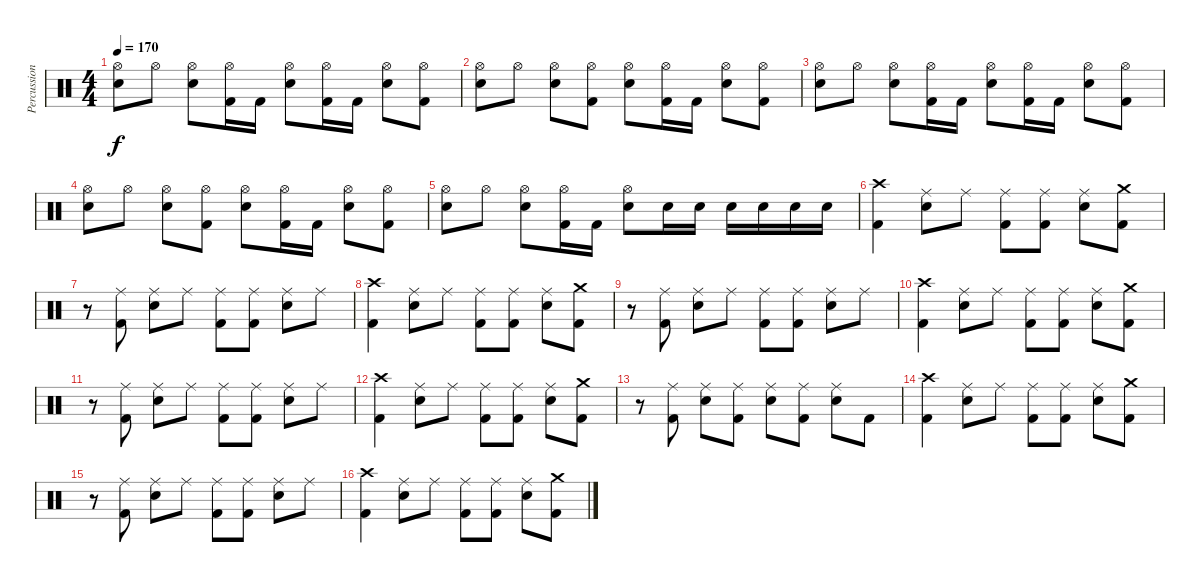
\track ("Percussion" "Percussion") {instrument percussion}
\staff {score}
\articulation defaults
\ts (4 4)
\tempo 170
\clef neutral
\ks c
("Electric Snare (hit)" "Hi-Hat (open)").8{dy f} "Hi-Hat (open)".8 ("Electric Snare (hit)" "Hi-Hat (open)").8 ("Kick (hit) 2" "Hi-Hat (open)").16 "Kick (hit) 2".16 ("Electric Snare (hit)" "Hi-Hat (open)").8 ("Kick (hit) 2" "Hi-Hat (open)").16 "Kick (hit) 2".16 ("Electric Snare (hit)" "Hi-Hat (open)").8 ("Kick (hit) 2" "Hi-Hat (open)").8 |
("Electric Snare (hit)" "Hi-Hat (open)").8 "Hi-Hat (open)".8 ("Electric Snare (hit)" "Hi-Hat (open)").8 ("Kick (hit) 2" "Hi-Hat (open)").8 ("Electric Snare (hit)" "Hi-Hat (open)").8 ("Kick (hit) 2" "Hi-Hat (open)").16 "Kick (hit) 2".16 ("Electric Snare (hit)" "Hi-Hat (open)").8 ("Kick (hit) 2" "Hi-Hat (open)").8 |
("Electric Snare (hit)" "Hi-Hat (open)").8 "Hi-Hat (open)".8 ("Electric Snare (hit)" "Hi-Hat (open)").8 ("Kick (hit) 2" "Hi-Hat (open)").16 "Kick (hit) 2".16 ("Electric Snare (hit)" "Hi-Hat (open)").8 ("Kick (hit) 2" "Hi-Hat (open)").16 "Kick (hit) 2".16 ("Electric Snare (hit)" "Hi-Hat (open)").8 ("Kick (hit) 2" "Hi-Hat (open)").8 |
("Electric Snare (hit)" "Hi-Hat (open)").8 "Hi-Hat (open)".8 ("Electric Snare (hit)" "Hi-Hat (open)").8 ("Kick (hit) 2" "Hi-Hat (open)").8 ("Electric Snare (hit)" "Hi-Hat (open)").8 ("Kick (hit) 2" "Hi-Hat (open)").16 "Kick (hit) 2".16 ("Electric Snare (hit)" "Hi-Hat (open)").8 ("Kick (hit) 2" "Hi-Hat (open)").8 |
("Electric Snare (hit)" "Hi-Hat (open)").8 "Hi-Hat (open)".8 ("Electric Snare (hit)" "Hi-Hat (open)").8 ("Kick (hit) 2" "Hi-Hat (open)").16 "Kick (hit) 2".16 ("Electric Snare (hit)" "Hi-Hat (open)").8 "Electric Snare (hit)".16 "Electric Snare (hit)".16 "Electric Snare (hit)".16 "Electric Snare (hit)".16 "Electric Snare (hit)".16 "Electric Snare (hit)".16 |
("Kick (hit) 2" "Crash high (hit)").4 ("Electric Snare (hit)" "Ride (middle)").8 "Ride (middle)".8 ("Kick (hit) 2" "Ride (middle)").8 ("Kick (hit) 2" "Ride (middle)").8 ("Electric Snare (hit)" "Ride (middle)").8 ("Kick (hit) 2" "Crash medium (hit)").8 |
r.8 ("Kick (hit) 2" "Ride (middle)").8 ("Electric Snare (hit)" "Ride (middle)").8 "Ride (middle)".8 ("Kick (hit) 2" "Ride (middle)").8 ("Kick (hit) 2" "Ride (middle)").8 ("Electric Snare (hit)" "Ride (middle)").8 "Ride (middle)".8 |
("Kick (hit) 2" "Crash high (hit)").4 ("Electric Snare (hit)" "Ride (middle)").8 "Ride (middle)".8 ("Kick (hit) 2" "Ride (middle)").8 ("Kick (hit) 2" "Ride (middle)").8 ("Electric Snare (hit)" "Ride (middle)").8 ("Kick (hit) 2" "Crash medium (hit)").8 |
r.8 ("Kick (hit) 2" "Ride (middle)").8 ("Electric Snare (hit)" "Ride (middle)").8 "Ride (middle)".8 ("Kick (hit) 2" "Ride (middle)").8 ("Kick (hit) 2" "Ride (middle)").8 ("Electric Snare (hit)" "Ride (middle)").8 "Ride (middle)".8 |
("Kick (hit) 2" "Crash high (hit)").4 ("Electric Snare (hit)" "Ride (middle)").8 "Ride (middle)".8 ("Kick (hit) 2" "Ride (middle)").8 ("Kick (hit) 2" "Ride (middle)").8 ("Electric Snare (hit)" "Ride (middle)").8 ("Kick (hit) 2" "Crash medium (hit)").8 |
r.8 ("Kick (hit) 2" "Ride (middle)").8 ("Electric Snare (hit)" "Ride (middle)").8 "Ride (middle)".8 ("Kick (hit) 2" "Ride (middle)").8 ("Kick (hit) 2" "Ride (middle)").8 ("Electric Snare (hit)" "Ride (middle)").8 "Ride (middle)".8 |
("Kick (hit) 2" "Crash high (hit)").4 ("Electric Snare (hit)" "Ride (middle)").8 "Ride (middle)".8 ("Kick (hit) 2" "Ride (middle)").8 ("Kick (hit) 2" "Ride (middle)").8 ("Electric Snare (hit)" "Ride (middle)").8 ("Kick (hit) 2" "Crash medium (hit)").8 |
r.8 ("Kick (hit) 2" "Ride (middle)").8 ("Electric Snare (hit)" "Ride (middle)").8 ("Kick (hit) 2" "Ride (middle)").8 ("Electric Snare (hit)" "Ride (middle)").8 ("Kick (hit) 2" "Ride (middle)").8 ("Electric Snare (hit)" "Ride (middle)").8 "Kick (hit) 2".8 |
("Kick (hit) 2" "Crash high (hit)").4 ("Electric Snare (hit)" "Ride (middle)").8 "Ride (middle)".8 ("Kick (hit) 2" "Ride (middle)").8 ("Kick (hit) 2" "Ride (middle)").8 ("Electric Snare (hit)" "Ride (middle)").8 ("Kick (hit) 2" "Crash medium (hit)").8 |
r.8 ("Kick (hit) 2" "Ride (middle)").8 ("Electric Snare (hit)" "Ride (middle)").8 "Ride (middle)".8 ("Kick (hit) 2" "Ride (middle)").8 ("Kick (hit) 2" "Ride (middle)").8 ("Electric Snare (hit)" "Ride (middle)").8 "Ride (middle)".8 |
("Kick (hit) 2" "Crash high (hit)").4 ("Electric Snare (hit)" "Ride (middle)").8 "Ride (middle)".8 ("Kick (hit) 2" "Ride (middle)").8 ("Kick (hit) 2" "Ride (middle)").8 ("Electric Snare (hit)" "Ride (middle)").8 ("Kick (hit) 2" "Crash medium (hit)").8
